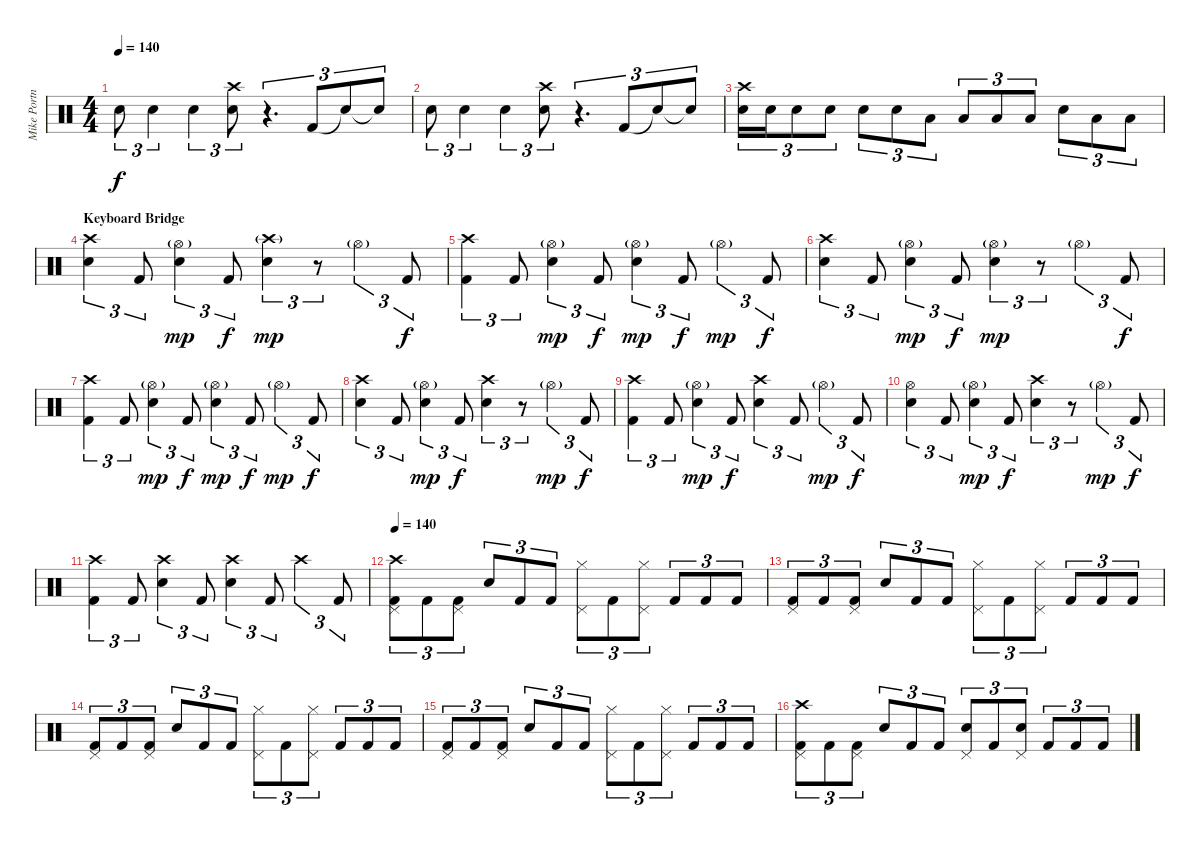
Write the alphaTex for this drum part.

\track ("Mike Portnoy Drums/Percussion" "Mike Portn") {instrument percussion}
\staff {score}
\articulation defaults
\ts (4 4)
\tempo 140
\clef neutral
\ks c "Snare (hit) 2".8{tu (3 2) dy f} "Snare (hit) 2".4{tu (3 2)} "Snare (hit) 2".4{tu (3 2)}
("Snare (hit) 2" "Crash high (hit)").8{tu (3 2)} r.4{d tu (3 2)} "Kick (hit) 2".8{tu (3 2)} "Snare (hit)"{t}.8{tu (3 2)} "Snare (hit)"{t}.8{tu (3 2)} |
"Snare (hit) 2".8{tu (3 2)} "Snare (hit) 2".4{tu (3 2)} "Snare (hit) 2".4{tu (3 2)} ("Snare (hit) 2" "Crash high (hit)").8{tu (3 2)} r.4{d tu (3 2)} "Kick (hit) 2".8{tu (3 2)} "Snare (hit)"{t}.8{tu (3 2)} "Snare (hit)"{t}.8{tu (3 2)} |
("Crash high (hit)" "Snare (hit) 2").16{tu (3 2)} "Snare (hit) 2".16{tu (3 2)} "Snare (hit) 2".8{tu (3 2)} "Snare (hit) 2".8{tu (3 2)} "Snare (hit) 2".8{tu (3 2)} "Snare (hit) 2".8{tu (3 2)} "Low Tom (hit)".8{tu (3 2)} "Low Tom (hit)".8{tu (3 2)} "Low Tom (hit)".8{tu (3 2)} "Low Floor Tom (hit)".8{tu (3 2)} "Snare (hit) 2".8{tu (3 2)} "Low Tom (hit)".8{tu (3 2)} "Low Floor Tom (hit)".8{tu (3 2)} |
\section ("" "Keyboard Bridge")
("Crash high (hit)" "Snare (hit) 2").4{tu (3 2)} "Kick (hit) 2".8{tu (3 2)} ("Hi-Hat (open)"{g} "Snare (hit) 2").4{tu (3 2) dy mp} "Kick (hit) 2".8{tu (3 2) dy f} ("Crash high (hit)"{g} "Snare (hit) 2").4{tu (3 2) dy mp} r.8{tu (3 2)} "Hi-Hat (open)"{g}.4{tu (3 2)} "Kick (hit) 2".8{tu (3 2) dy f} |
("Crash high (hit)" "Kick (hit) 2").4{tu (3 2)} "Kick (hit) 2".8{tu (3 2)} ("Hi-Hat (open)"{g} "Snare (hit) 2").4{tu (3 2) dy mp} "Kick (hit) 2".8{tu (3 2) dy f} ("Hi-Hat (open)"{g} "Snare (hit) 2").4{tu (3 2) dy mp} "Kick (hit) 2".8{tu (3 2) dy f} "Hi-Hat (open)"{g}.4{tu (3 2) dy mp} "Kick (hit) 2".8{tu (3 2) dy f} |
("Crash high (hit)" "Snare (hit) 2").4{tu (3 2)} "Kick (hit) 2".8{tu (3 2)} ("Hi-Hat (open)"{g} "Snare (hit) 2").4{tu (3 2) dy mp} "Kick (hit) 2".8{tu (3 2) dy f} ("Hi-Hat (open)"{g} "Snare (hit) 2").4{tu (3 2) dy mp} r.8{tu (3 2)} "Hi-Hat (open)"{g}.4{tu (3 2)} "Kick (hit) 2".8{tu (3 2) dy f} |
("Crash high (hit)" "Kick (hit) 2").4{tu (3 2)} "Kick (hit) 2".8{tu (3 2)} ("Hi-Hat (open)"{g} "Snare (hit) 2").4{tu (3 2) dy mp} "Kick (hit) 2".8{tu (3 2) dy f} ("Hi-Hat (open)"{g} "Snare (hit) 2").4{tu (3 2) dy mp} "Kick (hit) 2".8{tu (3 2) dy f} "Hi-Hat (open)"{g}.4{tu (3 2) dy mp} "Kick (hit) 2".8{tu (3 2) dy f} |
("Crash high (hit)" "Snare (hit) 2").4{tu (3 2)} "Kick (hit) 2".8{tu (3 2)} ("Hi-Hat (open)"{g} "Snare (hit) 2").4{tu (3 2) dy mp} "Kick (hit) 2".8{tu (3 2) dy f} ("Crash high (hit)" "Snare (hit) 2").4{tu (3 2)} r.8{tu (3 2)} "Hi-Hat (open)"{g}.4{tu (3 2) dy mp} "Kick (hit) 2".8{tu (3 2) dy f} |
("Crash high (hit)" "Kick (hit) 2").4{tu (3 2)} "Kick (hit) 2".8{tu (3 2)} ("Hi-Hat (open)"{g} "Snare (hit) 2").4{tu (3 2) dy mp} "Kick (hit) 2".8{tu (3 2) dy f} ("Crash high (hit)" "Snare (hit) 2").4{tu (3 2)} "Kick (hit) 2".8{tu (3 2)} "Hi-Hat (open)"{g}.4{tu (3 2) dy mp} "Kick (hit) 2".8{tu (3 2) dy f} |
("Hi-Hat (open)" "Snare (hit) 2").4{tu (3 2)} "Kick (hit) 2".8{tu (3 2)} ("Hi-Hat (open)"{g} "Snare (hit) 2").4{tu (3 2) dy mp} "Kick (hit) 2".8{tu (3 2) dy f} ("Crash high (hit)" "Snare (hit) 2").4{tu (3 2)} r.8{tu (3 2)} "Hi-Hat (open)"{g}.4{tu (3 2) dy mp} "Kick (hit) 2".8{tu (3 2) dy f} |
("Crash high (hit)" "Kick (hit) 2").4{tu (3 2)} "Kick (hit) 2".8{tu (3 2)} ("Crash high (hit)" "Snare (hit) 2").4{tu (3 2)} "Kick (hit) 2".8{tu (3 2)} ("Crash high (hit)" "Snare (hit) 2").4{tu (3 2)} "Kick (hit) 2".8{tu (3 2)} "Crash high (hit)".4{tu (3 2)} "Kick (hit) 2".8{tu (3 2)} |
\tempo 140
("Crash high (hit)" "Kick (hit) 2" "Pedal Hi-Hat (hit)").8{tu (3 2)} "Kick (hit) 2".8{tu (3 2)} ("Kick (hit) 2" "Pedal Hi-Hat (hit)").8{tu (3 2)} "Snare (hit) 2".8{tu (3 2)} "Kick (hit) 2".8{tu (3 2)} "Kick (hit) 2".8{tu (3 2)} ("Hi-Hat (closed)" "Pedal Hi-Hat (hit)").8{tu (3 2)} "Kick (hit) 2".8{tu (3 2)} ("Hi-Hat (closed)" "Pedal Hi-Hat (hit)").8{tu (3 2)} "Kick (hit) 2".8{tu (3 2)} "Kick (hit) 2".8{tu (3 2)} "Kick (hit) 2".8{tu (3 2)} |
("Kick (hit) 2" "Pedal Hi-Hat (hit)").8{tu (3 2)} "Kick (hit) 2".8{tu (3 2)} ("Kick (hit) 2" "Pedal Hi-Hat (hit)").8{tu (3 2)} "Snare (hit) 2".8{tu (3 2)} "Kick (hit) 2".8{tu (3 2)} "Kick (hit) 2".8{tu (3 2)} ("Hi-Hat (closed)" "Pedal Hi-Hat (hit)").8{tu (3 2)} "Kick (hit) 2".8{tu (3 2)} ("Hi-Hat (closed)" "Pedal Hi-Hat (hit)").8{tu (3 2)} "Kick (hit) 2".8{tu (3 2)} "Kick (hit) 2".8{tu (3 2)} "Kick (hit) 2".8{tu (3 2)} |
("Kick (hit) 2" "Pedal Hi-Hat (hit)").8{tu (3 2)} "Kick (hit) 2".8{tu (3 2)} ("Kick (hit) 2" "Pedal Hi-Hat (hit)").8{tu (3 2)} "Snare (hit) 2".8{tu (3 2)} "Kick (hit) 2".8{tu (3 2)} "Kick (hit) 2".8{tu (3 2)} ("Hi-Hat (closed)" "Pedal Hi-Hat (hit)").8{tu (3 2)} "Kick (hit) 2".8{tu (3 2)} ("Hi-Hat (closed)" "Pedal Hi-Hat (hit)").8{tu (3 2)} "Kick (hit) 2".8{tu (3 2)} "Kick (hit) 2".8{tu (3 2)} "Kick (hit) 2".8{tu (3 2)} |
("Kick (hit) 2" "Pedal Hi-Hat (hit)").8{tu (3 2)} "Kick (hit) 2".8{tu (3 2)} ("Kick (hit) 2" "Pedal Hi-Hat (hit)").8{tu (3 2)} "Snare (hit) 2".8{tu (3 2)} "Kick (hit) 2".8{tu (3 2)} "Kick (hit) 2".8{tu (3 2)} ("Hi-Hat (closed)" "Pedal Hi-Hat (hit)").8{tu (3 2)} "Kick (hit) 2".8{tu (3 2)} ("Hi-Hat (closed)" "Pedal Hi-Hat (hit)").8{tu (3 2)} "Kick (hit) 2".8{tu (3 2)} "Kick (hit) 2".8{tu (3 2)} "Kick (hit) 2".8{tu (3 2)} |
("Crash high (hit)" "Kick (hit) 2" "Pedal Hi-Hat (hit)").8{tu (3 2)} "Kick (hit) 2".8{tu (3 2)} ("Kick (hit) 2" "Pedal Hi-Hat (hit)").8{tu (3 2)} "Snare (hit) 2".8{tu (3 2)} "Kick (hit) 2".8{tu (3 2)} "Kick (hit) 2".8{tu (3 2)} ("Snare (hit) 2" "Pedal Hi-Hat (hit)").8{tu (3 2)} "Kick (hit) 2".8{tu (3 2)} ("Snare (hit) 2" "Pedal Hi-Hat (hit)").8{tu (3 2)} "Kick (hit) 2".8{tu (3 2)} "Kick (hit) 2".8{tu (3 2)} "Kick (hit) 2".8{tu (3 2)}
